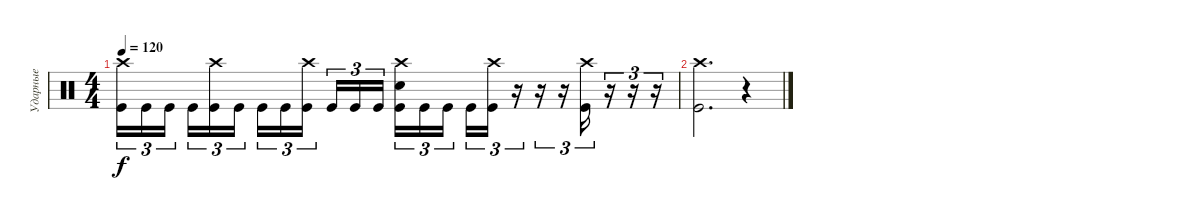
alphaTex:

\track ("Ударные" "Ударные") {instrument percussion}
\staff {score}
\articulation defaults
\ts (4 4)
\tempo 120
\clef neutral
\ks c
("Crash high (hit)" "Kick (hit)").16{tu (3 2) dy f} "Kick (hit)".16{tu (3 2)} "Kick (hit)".16{tu (3 2) beam splitsecondary} "Kick (hit)".16{tu (3 2)} ("Crash high (hit)" "Kick (hit)").16{tu (3 2)} "Kick (hit)".16{tu (3 2)} "Kick (hit)".16{tu (3 2)} "Kick (hit)".16{tu (3 2)} ("Crash high (hit)" "Kick (hit)").16{tu (3 2) beam splitsecondary} "Kick (hit)".16{tu (3 2)} "Kick (hit)".16{tu (3 2)} "Kick (hit)".16{tu (3 2)} ("Crash high (hit)" "Snare (hit) 2" "Kick (hit)").16{tu (3 2)} "Kick (hit)".16{tu (3 2)} "Kick (hit)".16{tu (3 2) beam splitsecondary} "Kick (hit)".16{tu (3 2)} ("Crash high (hit)" "Kick (hit)").16{tu (3 2)} r.16{tu (3 2)} r.16{tu (3 2)} r.16{tu (3 2)} ("Crash high (hit)" "Kick (hit)").16{tu (3 2)} r.16{tu (3 2)} r.16{tu (3 2)} r.16{tu (3 2)} |
("Crash high (hit)" "Kick (hit)").2{d} r.4
